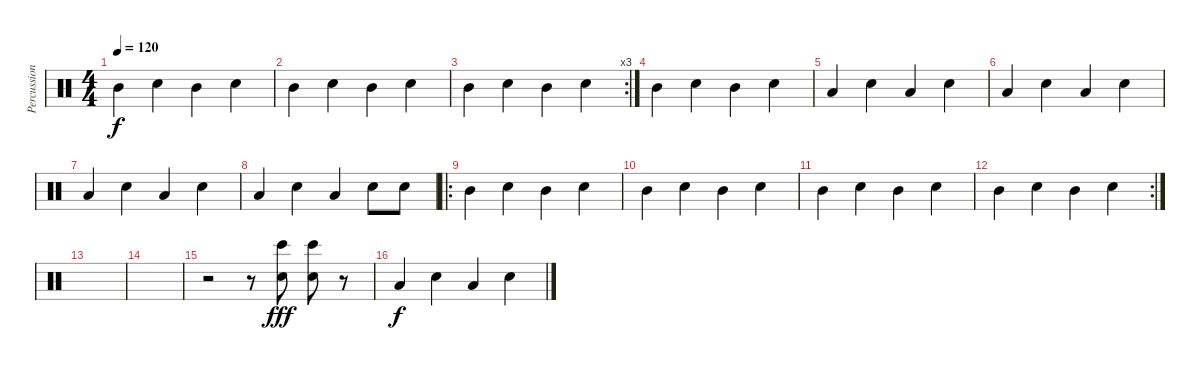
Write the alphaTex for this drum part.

\track ("Percussion" "Percussion") {instrument percussion}
\staff {score}
\articulation defaults
\ts (4 4)
\tempo 120
\clef neutral
\ks c "Mid Tom (hit)".4{dy f} "Electric Snare (hit)".4 "Mid Tom (hit)".4 "Electric Snare (hit)".4
|
"Mid Tom (hit)".4 "Electric Snare (hit)".4 "Mid Tom (hit)".4 "Electric Snare (hit)".4 |
\rc 3 "Mid Tom (hit)".4 "Electric Snare (hit)".4 "Mid Tom (hit)".4 "Electric Snare (hit)".4
|
"Mid Tom (hit)".4 "Electric Snare (hit)".4 "Mid Tom (hit)".4 "Electric Snare (hit)".4 |
"Low Floor Tom (hit)".4 "Electric Snare (hit)".4 "Low Floor Tom (hit)".4 "Electric Snare (hit)".4 |
"Low Floor Tom (hit)".4 "Electric Snare (hit)".4 "Low Floor Tom (hit)".4 "Electric Snare (hit)".4 |
"Low Floor Tom (hit)".4 "Electric Snare (hit)".4 "Low Floor Tom (hit)".4 "Electric Snare (hit)".4 |
"Low Floor Tom (hit)".4 "Electric Snare (hit)".4 "Low Floor Tom (hit)".4 "Electric Snare (hit)".8 "Electric Snare (hit)".8 |
\ro "Mid Tom (hit)".4 "Electric Snare (hit)".4 "Mid Tom (hit)".4 "Electric Snare (hit)".4
|
"Mid Tom (hit)".4 "Electric Snare (hit)".4 "Mid Tom (hit)".4 "Electric Snare (hit)".4 |
"Mid Tom (hit)".4 "Electric Snare (hit)".4 "Mid Tom (hit)".4 "Electric Snare (hit)".4 |
\rc 2 "Mid Tom (hit)".4 "Electric Snare (hit)".4 "Mid Tom (hit)".4 "Electric Snare (hit)".4
|
|
|
r.2 r.8 ("Bongo High (hit)" "Snare (hit) 2").8{dy fff} ("Bongo High (hit)" "Snare (hit) 2").8 r.8 |
"Low Floor Tom (hit)".4{dy f} "Electric Snare (hit)".4 "Low Floor Tom (hit)".4 "Electric Snare (hit)".4
